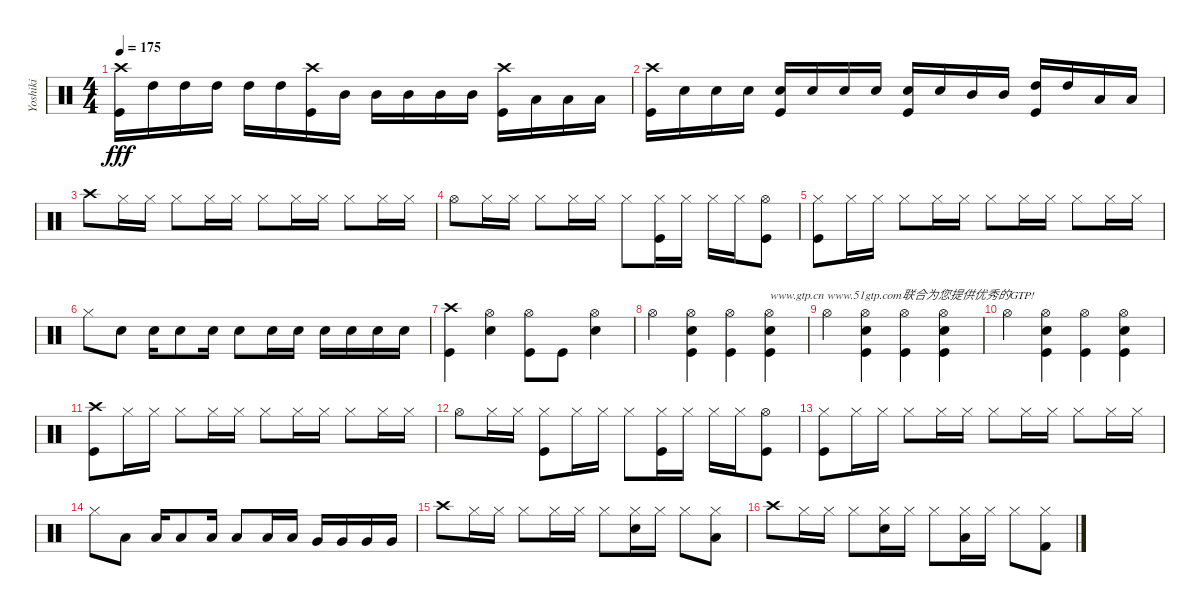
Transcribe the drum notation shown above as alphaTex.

\track ("Yoshiki" "Yoshiki") {instrument percussion}
\staff {score}
\articulation defaults
\ts (4 4)
\tempo 175
\clef neutral
\ks c
("Crash high (hit)" "Kick (hit)").16{dy fff} "High Tom (hit)".16 "High Tom (hit)".16 "High Tom (hit)".16 "High Tom (hit)".16 "High Tom (hit)".16 ("Crash high (hit)" "Kick (hit)").16 "Mid Tom (hit)".16 "Mid Tom (hit)".16 "Mid Tom (hit)".16 "Mid Tom (hit)".16 "Mid Tom (hit)".16 ("Crash high (hit)" "Kick (hit)").16 "Low Tom (hit)".16 "Low Tom (hit)".16 "Low Tom (hit)".16 |
("Crash high (hit)" "Kick (hit)").16 "Snare (hit) 2".16 "Snare (hit) 2".16 "Snare (hit) 2".16 ("Snare (hit) 2" "Kick (hit)").16 "Snare (hit) 2".16 "Snare (hit) 2".16 "Snare (hit) 2".16 ("Snare (hit) 2" "Kick (hit)").16 "Snare (hit) 2".16 "Mid Tom (hit)".16 "Mid Tom (hit)".16 ("High Tom (hit)" "Kick (hit)").16 "High Tom (hit)".16 "Low Tom (hit)".16 "Low Tom (hit)".16 |
"Crash high (hit)".8 "Hi-Hat (closed)".16 "Hi-Hat (closed)".16 "Hi-Hat (closed)".8 "Hi-Hat (closed)".16 "Hi-Hat (closed)".16 "Hi-Hat (closed)".8 "Hi-Hat (closed)".16 "Hi-Hat (closed)".16 "Hi-Hat (closed)".8 "Hi-Hat (closed)".16 "Hi-Hat (closed)".16 |
"Hi-Hat (open)".8 "Hi-Hat (closed)".16 "Hi-Hat (closed)".16 "Hi-Hat (closed)".8 "Hi-Hat (closed)".16 "Hi-Hat (closed)".16 "Hi-Hat (closed)".8 ("Hi-Hat (closed)" "Kick (hit)").16 "Hi-Hat (closed)".16 "Hi-Hat (closed)".16 "Hi-Hat (closed)".16 ("Hi-Hat (open)" "Kick (hit)").8 |
("Hi-Hat (closed)" "Kick (hit)").8 "Hi-Hat (closed)".16 "Hi-Hat (closed)".16 "Hi-Hat (closed)".8 "Hi-Hat (closed)".16 "Hi-Hat (closed)".16 "Hi-Hat (closed)".8 "Hi-Hat (closed)".16 "Hi-Hat (closed)".16 "Hi-Hat (closed)".8 "Hi-Hat (closed)".16 "Hi-Hat (closed)".16 |
"Hi-Hat (closed)".8 "Snare (hit) 2".8 "Snare (hit) 2".16 "Snare (hit) 2".8 "Snare (hit) 2".16 "Snare (hit) 2".8 "Snare (hit) 2".16 "Snare (hit) 2".16 "Snare (hit) 2".16 "Snare (hit) 2".16 "Snare (hit) 2".16 "Snare (hit) 2".16 |
("Crash high (hit)" "Kick (hit)").4 ("Hi-Hat (open)" "Snare (hit) 2").4 ("Hi-Hat (open)" "Kick (hit)").8 "Kick (hit)".8 ("Hi-Hat (open)" "Snare (hit) 2").4 |
"Hi-Hat (open)".4 ("Hi-Hat (open)" "Snare (hit) 2" "Kick (hit)").4 ("Hi-Hat (open)" "Kick (hit)").4 ("Hi-Hat (open)" "Snare (hit) 2" "Kick (hit)").4{txt "www.gtp.cn www.51gtp.com联合为您提供优秀的GTP!"} |
"Hi-Hat (open)".4 ("Hi-Hat (open)" "Snare (hit) 2" "Kick (hit)").4 ("Hi-Hat (open)" "Kick (hit)").4 ("Hi-Hat (open)" "Snare (hit) 2" "Kick (hit)").4 |
"Hi-Hat (open)".4 ("Hi-Hat (open)" "Snare (hit) 2" "Kick (hit)").4 ("Hi-Hat (open)" "Kick (hit)").4 ("Hi-Hat (open)" "Snare (hit) 2" "Kick (hit)").4 |
("Crash high (hit)" "Kick (hit)").8 "Hi-Hat (closed)".16 "Hi-Hat (closed)".16 "Hi-Hat (closed)".8 "Hi-Hat (closed)".16 "Hi-Hat (closed)".16 "Hi-Hat (closed)".8 "Hi-Hat (closed)".16 "Hi-Hat (closed)".16 "Hi-Hat (closed)".8 "Hi-Hat (closed)".16 "Hi-Hat (closed)".16 |
"Hi-Hat (open)".8 "Hi-Hat (closed)".16 "Hi-Hat (closed)".16 ("Hi-Hat (closed)" "Kick (hit)").8 "Hi-Hat (closed)".16 "Hi-Hat (closed)".16 "Hi-Hat (closed)".8 ("Hi-Hat (closed)" "Kick (hit)").16 "Hi-Hat (closed)".16 "Hi-Hat (closed)".16 "Hi-Hat (closed)".16 ("Hi-Hat (open)" "Kick (hit)").8 |
("Hi-Hat (closed)" "Kick (hit)").8 "Hi-Hat (closed)".16 "Hi-Hat (closed)".16 "Hi-Hat (closed)".8 "Hi-Hat (closed)".16 "Hi-Hat (closed)".16 "Hi-Hat (closed)".8 "Hi-Hat (closed)".16 "Hi-Hat (closed)".16 "Hi-Hat (closed)".8 "Hi-Hat (closed)".16 "Hi-Hat (closed)".16 |
"Hi-Hat (closed)".8 "Low Tom (hit)".8 "Low Tom (hit)".16 "Low Tom (hit)".8 "Low Tom (hit)".16 "Low Tom (hit)".8 "Low Tom (hit)".16 "Low Tom (hit)".16 "Very Low Tom (hit)".16 "Very Low Tom (hit)".16 "Very Low Tom (hit)".16 "Very Low Tom (hit)".16 |
"Crash high (hit)".8 "Hi-Hat (closed)".16 "Hi-Hat (closed)".16 "Hi-Hat (closed)".8 "Hi-Hat (closed)".16 "Hi-Hat (closed)".16 "Hi-Hat (closed)".8 ("Hi-Hat (closed)" "Snare (hit) 2").16 "Hi-Hat (closed)".16 "Hi-Hat (closed)".8 ("Hi-Hat (closed)" "Low Tom (hit)").8 |
"Crash high (hit)".8 "Hi-Hat (closed)".16 "Hi-Hat (closed)".16 "Hi-Hat (closed)".8 ("Hi-Hat (closed)" "Snare (hit) 2").16 "Hi-Hat (closed)".16 "Hi-Hat (closed)".8 ("Hi-Hat (closed)" "Low Tom (hit)").16 "Hi-Hat (closed)".16 "Hi-Hat (closed)".8 ("Hi-Hat (closed)" "Kick (hit) 2").8
